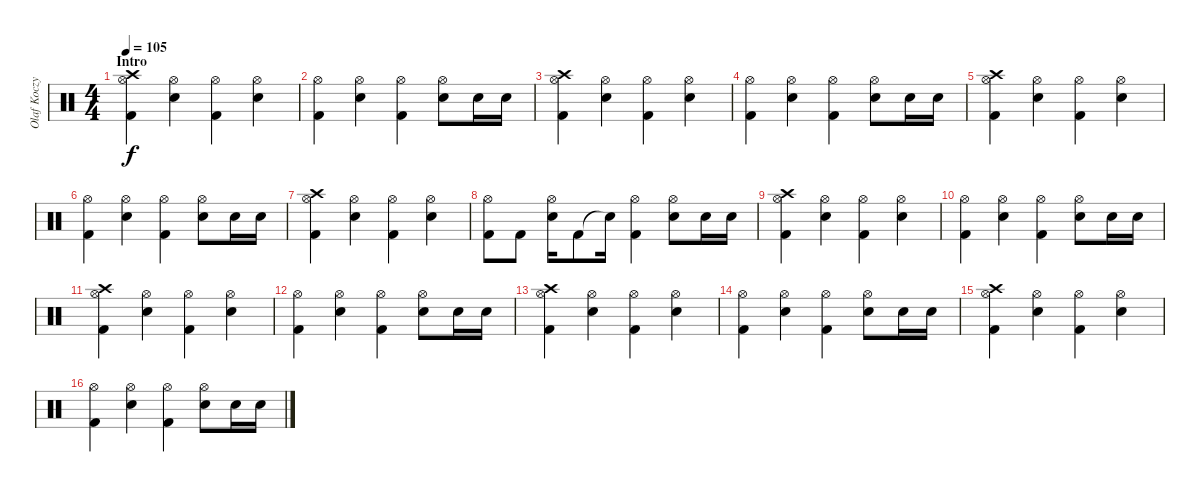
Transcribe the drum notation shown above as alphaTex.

\track ("Olaf Koczy (drums)" "Olaf Koczy") {instrument percussion}
\staff {score}
\articulation defaults
\ts (4 4)
\section ("" "Intro")
\tempo 105
\clef neutral
\ks c
("Crash high (hit)" "Hi-Hat (open)" "Kick (hit) 2").4{dy f} ("Hi-Hat (open)" "Snare (hit) 2").4 ("Hi-Hat (open)" "Kick (hit) 2").4 ("Hi-Hat (open)" "Snare (hit) 2").4 |
("Hi-Hat (open)" "Kick (hit) 2").4 ("Hi-Hat (open)" "Snare (hit) 2").4 ("Hi-Hat (open)" "Kick (hit) 2").4 ("Hi-Hat (open)" "Snare (hit) 2").8 "Snare (hit) 2".16 "Snare (hit) 2".16 |
("Crash high (hit)" "Hi-Hat (open)" "Kick (hit) 2").4 ("Hi-Hat (open)" "Snare (hit) 2").4 ("Hi-Hat (open)" "Kick (hit) 2").4 ("Hi-Hat (open)" "Snare (hit) 2").4 |
("Hi-Hat (open)" "Kick (hit) 2").4 ("Hi-Hat (open)" "Snare (hit) 2").4 ("Hi-Hat (open)" "Kick (hit) 2").4 ("Hi-Hat (open)" "Snare (hit) 2").8 "Snare (hit) 2".16 "Snare (hit) 2".16 |
("Crash high (hit)" "Hi-Hat (open)" "Kick (hit) 2").4 ("Hi-Hat (open)" "Snare (hit) 2").4 ("Hi-Hat (open)" "Kick (hit) 2").4 ("Hi-Hat (open)" "Snare (hit) 2").4 |
("Hi-Hat (open)" "Kick (hit) 2").4 ("Hi-Hat (open)" "Snare (hit) 2").4 ("Hi-Hat (open)" "Kick (hit) 2").4 ("Hi-Hat (open)" "Snare (hit) 2").8 "Snare (hit) 2".16 "Snare (hit) 2".16 |
("Crash high (hit)" "Hi-Hat (open)" "Kick (hit) 2").4 ("Hi-Hat (open)" "Snare (hit) 2").4 ("Hi-Hat (open)" "Kick (hit) 2").4 ("Hi-Hat (open)" "Snare (hit) 2").4 |
("Hi-Hat (open)" "Kick (hit) 2").8 "Kick (hit) 2".8 ("Hi-Hat (open)" "Snare (hit) 2").16 "Kick (hit) 2".8 "Snare (hit)"{t}.16 ("Hi-Hat (open)" "Kick (hit) 2").4 ("Hi-Hat (open)" "Snare (hit) 2").8 "Snare (hit) 2".16 "Snare (hit) 2".16 |
("Crash high (hit)" "Hi-Hat (open)" "Kick (hit) 2").4 ("Hi-Hat (open)" "Snare (hit) 2").4 ("Hi-Hat (open)" "Kick (hit) 2").4 ("Hi-Hat (open)" "Snare (hit) 2").4 |
("Hi-Hat (open)" "Kick (hit) 2").4 ("Hi-Hat (open)" "Snare (hit) 2").4 ("Hi-Hat (open)" "Kick (hit) 2").4 ("Hi-Hat (open)" "Snare (hit) 2").8 "Snare (hit) 2".16 "Snare (hit) 2".16 |
("Crash high (hit)" "Hi-Hat (open)" "Kick (hit) 2").4 ("Hi-Hat (open)" "Snare (hit) 2").4 ("Hi-Hat (open)" "Kick (hit) 2").4 ("Hi-Hat (open)" "Snare (hit) 2").4 |
("Hi-Hat (open)" "Kick (hit) 2").4 ("Hi-Hat (open)" "Snare (hit) 2").4 ("Hi-Hat (open)" "Kick (hit) 2").4 ("Hi-Hat (open)" "Snare (hit) 2").8 "Snare (hit) 2".16 "Snare (hit) 2".16 |
("Crash high (hit)" "Hi-Hat (open)" "Kick (hit) 2").4 ("Hi-Hat (open)" "Snare (hit) 2").4 ("Hi-Hat (open)" "Kick (hit) 2").4 ("Hi-Hat (open)" "Snare (hit) 2").4 |
("Hi-Hat (open)" "Kick (hit) 2").4 ("Hi-Hat (open)" "Snare (hit) 2").4 ("Hi-Hat (open)" "Kick (hit) 2").4 ("Hi-Hat (open)" "Snare (hit) 2").8 "Snare (hit) 2".16 "Snare (hit) 2".16 |
("Crash high (hit)" "Hi-Hat (open)" "Kick (hit) 2").4 ("Hi-Hat (open)" "Snare (hit) 2").4 ("Hi-Hat (open)" "Kick (hit) 2").4 ("Hi-Hat (open)" "Snare (hit) 2").4 |
("Hi-Hat (open)" "Kick (hit) 2").4 ("Hi-Hat (open)" "Snare (hit) 2").4 ("Hi-Hat (open)" "Kick (hit) 2").4 ("Hi-Hat (open)" "Snare (hit) 2").8 "Snare (hit) 2".16 "Snare (hit) 2".16
